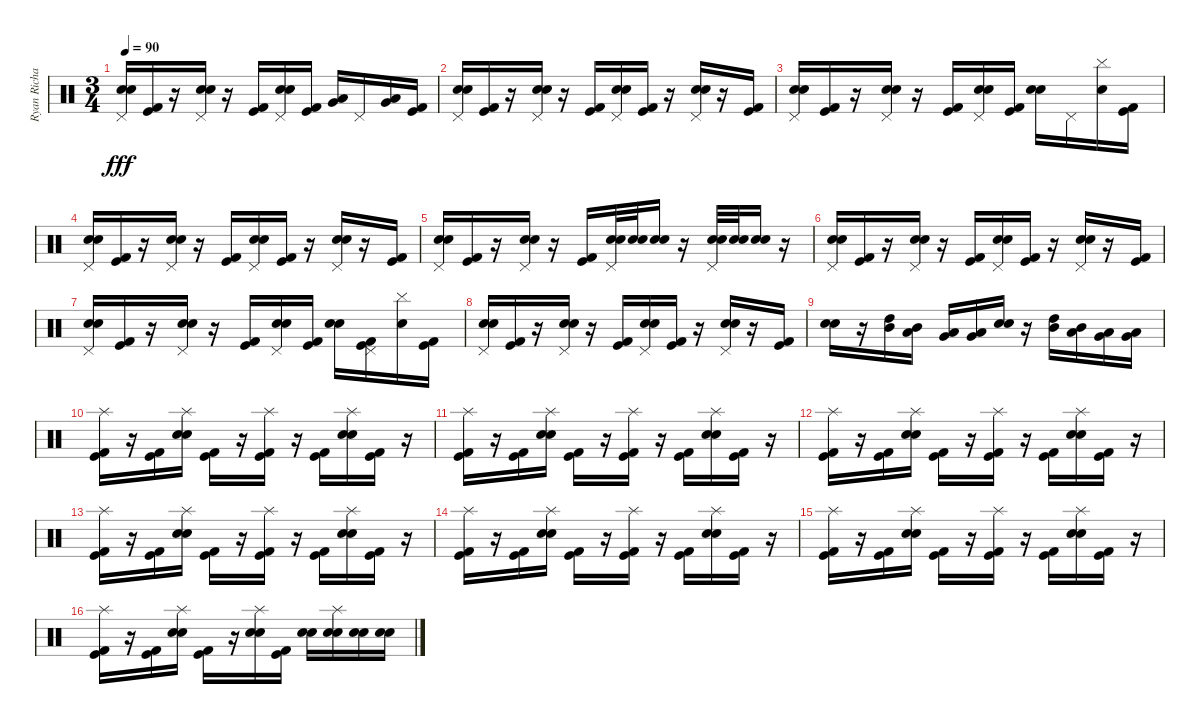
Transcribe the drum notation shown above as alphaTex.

\track ("Ryan Richards" "Ryan Richa") {instrument percussion}
\staff {score}
\articulation defaults
\ts (3 4)
\tempo 90
\clef neutral
\ks c
("Pedal Hi-Hat (hit)" "Snare (hit) 2" "Electric Snare (hit)").16{dy fff} ("Kick (hit)" "Kick (hit) 2").16 r.16 ("Pedal Hi-Hat (hit)" "Snare (hit) 2" "Electric Snare (hit)").16 r.16 ("Kick (hit)" "Kick (hit) 2").16 ("Pedal Hi-Hat (hit)" "Snare (hit) 2" "Electric Snare (hit)").16 ("Kick (hit)" "Kick (hit) 2").16 ("Low Tom (hit)" "Very Low Tom (hit)").16 "Pedal Hi-Hat (hit)".16 ("Very Low Tom (hit)" "Low Floor Tom (hit)").16 ("Kick (hit)" "Kick (hit) 2").16 |
("Pedal Hi-Hat (hit)" "Snare (hit) 2" "Electric Snare (hit)").16 ("Kick (hit)" "Kick (hit) 2").16 r.16 ("Pedal Hi-Hat (hit)" "Snare (hit) 2" "Electric Snare (hit)").16 r.16 ("Kick (hit)" "Kick (hit) 2").16 ("Pedal Hi-Hat (hit)" "Snare (hit) 2" "Electric Snare (hit)").16 ("Kick (hit)" "Kick (hit) 2").16 r.16 ("Pedal Hi-Hat (hit)" "Snare (hit) 2" "Electric Snare (hit)").16 r.16 ("Kick (hit)" "Kick (hit) 2").16 |
("Pedal Hi-Hat (hit)" "Snare (hit) 2" "Electric Snare (hit)").16 ("Kick (hit)" "Kick (hit) 2").16 r.16 ("Pedal Hi-Hat (hit)" "Snare (hit) 2" "Electric Snare (hit)").16 r.16 ("Kick (hit)" "Kick (hit) 2").16 ("Pedal Hi-Hat (hit)" "Snare (hit) 2" "Electric Snare (hit)").16 ("Kick (hit)" "Kick (hit) 2").16 ("Snare (hit) 2" "Electric Snare (hit)").16 "Pedal Hi-Hat (hit)".16 ("Snare (hit) 2" "Cymbal (hit)").16 ("Kick (hit)" "Kick (hit) 2").16 |
("Pedal Hi-Hat (hit)" "Snare (hit) 2" "Electric Snare (hit)").16 ("Kick (hit)" "Kick (hit) 2").16 r.16 ("Pedal Hi-Hat (hit)" "Snare (hit) 2" "Electric Snare (hit)").16 r.16 ("Kick (hit)" "Kick (hit) 2").16 ("Pedal Hi-Hat (hit)" "Snare (hit) 2" "Electric Snare (hit)").16 ("Kick (hit)" "Kick (hit) 2").16 r.16 ("Pedal Hi-Hat (hit)" "Snare (hit) 2" "Electric Snare (hit)").16 r.16 ("Kick (hit)" "Kick (hit) 2").16 |
("Pedal Hi-Hat (hit)" "Snare (hit) 2" "Electric Snare (hit)").16 ("Kick (hit)" "Kick (hit) 2").16 r.16 ("Pedal Hi-Hat (hit)" "Snare (hit) 2" "Electric Snare (hit)").16 r.16 ("Kick (hit)" "Kick (hit) 2").16 ("Pedal Hi-Hat (hit)" "Snare (hit) 2" "Electric Snare (hit)").32 ("Snare (hit) 2" "Electric Snare (hit)").32 ("Snare (hit) 2" "Electric Snare (hit)").16 r.16 ("Pedal Hi-Hat (hit)" "Snare (hit) 2" "Electric Snare (hit)").32 ("Snare (hit) 2" "Electric Snare (hit)").32 ("Snare (hit) 2" "Electric Snare (hit)").16 r.16 |
("Pedal Hi-Hat (hit)" "Snare (hit) 2" "Electric Snare (hit)").16 ("Kick (hit)" "Kick (hit) 2").16 r.16 ("Pedal Hi-Hat (hit)" "Snare (hit) 2" "Electric Snare (hit)").16 r.16 ("Kick (hit)" "Kick (hit) 2").16 ("Pedal Hi-Hat (hit)" "Snare (hit) 2" "Electric Snare (hit)").16 ("Kick (hit)" "Kick (hit) 2").16 r.16 ("Pedal Hi-Hat (hit)" "Snare (hit) 2" "Electric Snare (hit)").16 r.16 ("Kick (hit)" "Kick (hit) 2").16 |
("Pedal Hi-Hat (hit)" "Snare (hit) 2" "Electric Snare (hit)").16 ("Kick (hit)" "Kick (hit) 2").16 r.16 ("Pedal Hi-Hat (hit)" "Snare (hit) 2" "Electric Snare (hit)").16 r.16 ("Kick (hit)" "Kick (hit) 2").16 ("Pedal Hi-Hat (hit)" "Snare (hit) 2" "Electric Snare (hit)").16 ("Kick (hit)" "Kick (hit) 2").16 ("Snare (hit) 2" "Electric Snare (hit)").16 ("Kick (hit)" "Pedal Hi-Hat (hit)" "Kick (hit) 2").16 ("Snare (hit) 2" "Cymbal (hit)").16 ("Kick (hit)" "Kick (hit) 2").16 |
("Pedal Hi-Hat (hit)" "Snare (hit) 2" "Electric Snare (hit)").16 ("Kick (hit)" "Kick (hit) 2").16 r.16 ("Pedal Hi-Hat (hit)" "Snare (hit) 2" "Electric Snare (hit)").16 r.16 ("Kick (hit)" "Kick (hit) 2").16 ("Pedal Hi-Hat (hit)" "Snare (hit) 2" "Electric Snare (hit)").16 ("Kick (hit)" "Kick (hit) 2").16 r.16 ("Pedal Hi-Hat (hit)" "Snare (hit) 2" "Electric Snare (hit)").16 r.16 ("Kick (hit)" "Kick (hit) 2").16 |
("Snare (hit) 2" "Electric Snare (hit)").16 r.16 ("High Tom (hit)" "Mid Tom (hit)").16 ("Mid Tom (hit)" "Low Tom (hit)").16 ("Low Tom (hit)" "Very Low Tom (hit)").16 ("Very Low Tom (hit)" "Low Floor Tom (hit)").16 ("Snare (hit) 2" "Electric Snare (hit)").16 r.16 ("High Tom (hit)" "Mid Tom (hit)").16 ("Mid Tom (hit)" "Low Tom (hit)").16 ("Low Tom (hit)" "Very Low Tom (hit)").16 ("Very Low Tom (hit)" "Low Floor Tom (hit)").16 |
("Kick (hit)" "Splash (hit)" "Kick (hit) 2").16 r.16 ("Kick (hit)" "Kick (hit) 2").16 ("Splash (hit)" "Snare (hit) 2" "Electric Snare (hit)").16 ("Kick (hit)" "Kick (hit) 2").16 r.16 ("Kick (hit)" "Splash (hit)" "Kick (hit) 2").16 r.16 ("Kick (hit)" "Kick (hit) 2").16 ("Splash (hit)" "Snare (hit) 2" "Electric Snare (hit)").16 ("Kick (hit)" "Kick (hit) 2").16 r.16 |
("Kick (hit)" "Splash (hit)" "Kick (hit) 2").16 r.16 ("Kick (hit)" "Kick (hit) 2").16 ("Splash (hit)" "Snare (hit) 2" "Electric Snare (hit)").16 ("Kick (hit)" "Kick (hit) 2").16 r.16 ("Kick (hit)" "Splash (hit)" "Kick (hit) 2").16 r.16 ("Kick (hit)" "Kick (hit) 2").16 ("Splash (hit)" "Snare (hit) 2" "Electric Snare (hit)").16 ("Kick (hit)" "Kick (hit) 2").16 r.16 |
("Kick (hit)" "Splash (hit)" "Kick (hit) 2").16 r.16 ("Kick (hit)" "Kick (hit) 2").16 ("Splash (hit)" "Snare (hit) 2" "Electric Snare (hit)").16 ("Kick (hit)" "Kick (hit) 2").16 r.16 ("Kick (hit)" "Splash (hit)" "Kick (hit) 2").16 r.16 ("Kick (hit)" "Kick (hit) 2").16 ("Splash (hit)" "Snare (hit) 2" "Electric Snare (hit)").16 ("Kick (hit)" "Kick (hit) 2").16 r.16 |
("Kick (hit)" "Splash (hit)" "Kick (hit) 2").16 r.16 ("Kick (hit)" "Kick (hit) 2").16 ("Splash (hit)" "Snare (hit) 2" "Electric Snare (hit)").16 ("Kick (hit)" "Kick (hit) 2").16 r.16 ("Kick (hit)" "Splash (hit)" "Kick (hit) 2").16 r.16 ("Kick (hit)" "Kick (hit) 2").16 ("Splash (hit)" "Snare (hit) 2" "Electric Snare (hit)").16 ("Kick (hit)" "Kick (hit) 2").16 r.16 |
("Kick (hit)" "Splash (hit)" "Kick (hit) 2").16 r.16 ("Kick (hit)" "Kick (hit) 2").16 ("Splash (hit)" "Snare (hit) 2" "Electric Snare (hit)").16 ("Kick (hit)" "Kick (hit) 2").16 r.16 ("Kick (hit)" "Splash (hit)" "Kick (hit) 2").16 r.16 ("Kick (hit)" "Kick (hit) 2").16 ("Splash (hit)" "Snare (hit) 2" "Electric Snare (hit)").16 ("Kick (hit)" "Kick (hit) 2").16 r.16 |
("Kick (hit)" "Splash (hit)" "Kick (hit) 2").16 r.16 ("Kick (hit)" "Kick (hit) 2").16 ("Splash (hit)" "Snare (hit) 2" "Electric Snare (hit)").16 ("Kick (hit)" "Kick (hit) 2").16 r.16 ("Kick (hit)" "Splash (hit)" "Kick (hit) 2").16 r.16 ("Kick (hit)" "Kick (hit) 2").16 ("Splash (hit)" "Snare (hit) 2" "Electric Snare (hit)").16 ("Kick (hit)" "Kick (hit) 2").16 r.16 |
("Kick (hit)" "Splash (hit)" "Kick (hit) 2").16 r.16 ("Kick (hit)" "Kick (hit) 2").16 ("Splash (hit)" "Snare (hit) 2" "Electric Snare (hit)").16 ("Kick (hit)" "Kick (hit) 2").16 r.16 ("Splash (hit)" "Snare (hit) 2" "Electric Snare (hit)").16 ("Kick (hit)" "Kick (hit) 2").16 ("Snare (hit) 2" "Electric Snare (hit)").16 ("Splash (hit)" "Snare (hit) 2" "Electric Snare (hit)").16 ("Snare (hit) 2" "Electric Snare (hit)").16 ("Snare (hit) 2" "Electric Snare (hit)").16
